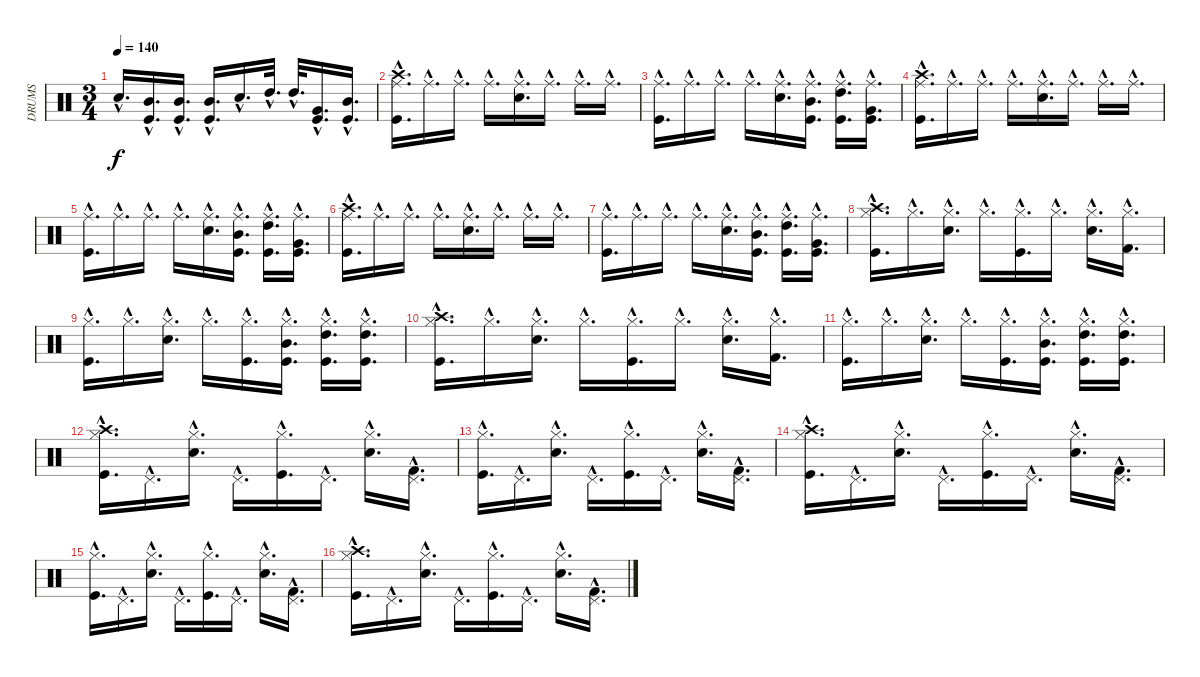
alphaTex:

\track ("DRUMS" "DRUMS") {instrument percussion}
\staff {score}
\articulation defaults
\ts (3 4)
\tempo 140
\clef neutral
\ks c "Snare (hit) 2"{hac}.16{d dy f}
("Mid Tom (hit)"{hac} "Kick (hit)"{hac}).16{d} ("Mid Tom (hit)"{hac} "Kick (hit)"{hac}).16{d} ("Mid Tom (hit)"{hac} "Kick (hit)"{hac}).16{d} "Snare (hit) 2"{hac}.16{d} "High Tom (hit)"{hac}.32{d} "High Tom (hit)"{hac}.32{d} ("Very Low Tom (hit)"{hac} "Kick (hit)"{hac}).16{d} ("Mid Tom (hit)"{hac} "Kick (hit)"{hac}).16{d} |
("Ride (middle)"{hac} "Crash high (hit)"{hac} "Kick (hit)"{hac}).16{d} "Ride (middle)"{hac}.16{d} "Ride (middle)"{hac}.16{d} "Ride (middle)"{hac}.16{d} ("Ride (middle)"{hac} "Snare (hit) 2"{hac}).16{d} "Ride (middle)"{hac}.16{d} "Ride (middle)"{hac}.16{d} "Ride (middle)"{hac}.16{d} |
("Ride (middle)"{hac} "Kick (hit)"{hac}).16{d} "Ride (middle)"{hac}.16{d} "Ride (middle)"{hac}.16{d} "Ride (middle)"{hac}.16{d} ("Ride (middle)"{hac} "Snare (hit) 2"{hac}).16{d} ("Ride (middle)"{hac} "Mid Tom (hit)"{hac} "Kick (hit)"{hac}).16{d} ("Ride (middle)"{hac} "High Tom (hit)"{hac} "Kick (hit)"{hac}).16{d} ("Ride (middle)"{hac} "Very Low Tom (hit)"{hac} "Kick (hit)"{hac}).16{d} |
("Ride (middle)"{hac} "Crash high (hit)"{hac} "Kick (hit)"{hac}).16{d} "Ride (middle)"{hac}.16{d} "Ride (middle)"{hac}.16{d} "Ride (middle)"{hac}.16{d} ("Ride (middle)"{hac} "Snare (hit) 2"{hac}).16{d} "Ride (middle)"{hac}.16{d} "Ride (middle)"{hac}.16{d} "Ride (middle)"{hac}.16{d} |
("Ride (middle)"{hac} "Kick (hit)"{hac}).16{d} "Ride (middle)"{hac}.16{d} "Ride (middle)"{hac}.16{d} "Ride (middle)"{hac}.16{d} ("Ride (middle)"{hac} "Snare (hit) 2"{hac}).16{d} ("Ride (middle)"{hac} "Mid Tom (hit)"{hac} "Kick (hit)"{hac}).16{d} ("Ride (middle)"{hac} "High Tom (hit)"{hac} "Kick (hit)"{hac}).16{d} ("Ride (middle)"{hac} "Very Low Tom (hit)"{hac} "Kick (hit)"{hac}).16{d} |
("Ride (middle)"{hac} "Crash high (hit)"{hac} "Kick (hit)"{hac}).16{d} "Ride (middle)"{hac}.16{d} "Ride (middle)"{hac}.16{d} "Ride (middle)"{hac}.16{d} ("Ride (middle)"{hac} "Snare (hit) 2"{hac}).16{d} "Ride (middle)"{hac}.16{d} "Ride (middle)"{hac}.16{d} "Ride (middle)"{hac}.16{d} |
("Ride (middle)"{hac} "Kick (hit)"{hac}).16{d} "Ride (middle)"{hac}.16{d} "Ride (middle)"{hac}.16{d} "Ride (middle)"{hac}.16{d} ("Ride (middle)"{hac} "Snare (hit) 2"{hac}).16{d} ("Ride (middle)"{hac} "Mid Tom (hit)"{hac} "Kick (hit)"{hac}).16{d} ("Ride (middle)"{hac} "High Tom (hit)"{hac} "Kick (hit)"{hac}).16{d} ("Ride (middle)"{hac} "Very Low Tom (hit)"{hac} "Kick (hit)"{hac}).16{d} |
("Hi-Hat (closed)"{hac} "Crash high (hit)"{hac} "Kick (hit)"{hac}).16{d} "Hi-Hat (closed)"{hac}.16{d} ("Hi-Hat (closed)"{hac} "Electric Snare (hit)"{hac}).16{d} "Hi-Hat (closed)"{hac}.16{d} ("Hi-Hat (closed)"{hac} "Kick (hit)"{hac}).16{d} "Hi-Hat (closed)"{hac}.16{d} ("Hi-Hat (closed)"{hac} "Electric Snare (hit)"{hac}).16{d} ("Hi-Hat (closed)"{hac} "Kick (hit) 2"{hac}).16{d} |
("Hi-Hat (closed)"{hac} "Kick (hit)"{hac}).16{d} "Hi-Hat (closed)"{hac}.16{d} ("Hi-Hat (closed)"{hac} "Electric Snare (hit)"{hac}).16{d} "Hi-Hat (closed)"{hac}.16{d} ("Hi-Hat (closed)"{hac} "Kick (hit)"{hac}).16{d} ("Hi-Hat (closed)"{hac} "Mid Tom (hit)"{hac} "Kick (hit)"{hac}).16{d} ("Hi-Hat (closed)"{hac} "High Tom (hit)"{hac} "Kick (hit)"{hac}).16{d} ("Hi-Hat (closed)"{hac} "High Tom (hit)"{hac} "Kick (hit)"{hac}).16{d} |
("Hi-Hat (closed)"{hac} "Crash high (hit)"{hac} "Kick (hit)"{hac}).16{d} "Hi-Hat (closed)"{hac}.16{d} ("Hi-Hat (closed)"{hac} "Electric Snare (hit)"{hac}).16{d} "Hi-Hat (closed)"{hac}.16{d} ("Hi-Hat (closed)"{hac} "Kick (hit)"{hac}).16{d} "Hi-Hat (closed)"{hac}.16{d} ("Hi-Hat (closed)"{hac} "Electric Snare (hit)"{hac}).16{d} ("Hi-Hat (closed)"{hac} "Kick (hit) 2"{hac}).16{d} |
("Hi-Hat (closed)"{hac} "Kick (hit)"{hac}).16{d} "Hi-Hat (closed)"{hac}.16{d} ("Hi-Hat (closed)"{hac} "Electric Snare (hit)"{hac}).16{d} "Hi-Hat (closed)"{hac}.16{d} ("Hi-Hat (closed)"{hac} "Kick (hit)"{hac}).16{d} ("Hi-Hat (closed)"{hac} "Mid Tom (hit)"{hac} "Kick (hit)"{hac}).16{d} ("Hi-Hat (closed)"{hac} "High Tom (hit)"{hac} "Kick (hit)"{hac}).16{d} ("Hi-Hat (closed)"{hac} "High Tom (hit)"{hac} "Kick (hit)"{hac}).16{d} |
("Hi-Hat (closed)"{hac} "Crash high (hit)"{hac} "Kick (hit)"{hac}).16{d} "Pedal Hi-Hat (hit)"{hac}.16{d} ("Hi-Hat (closed)"{hac} "Electric Snare (hit)"{hac}).16{d} "Pedal Hi-Hat (hit)"{hac}.16{d} ("Hi-Hat (closed)"{hac} "Kick (hit)"{hac}).16{d} "Pedal Hi-Hat (hit)"{hac}.16{d} ("Hi-Hat (closed)"{hac} "Electric Snare (hit)"{hac}).16{d} ("Pedal Hi-Hat (hit)"{hac} "Kick (hit) 2"{hac}).16{d} |
("Hi-Hat (closed)"{hac} "Kick (hit)"{hac}).16{d} "Pedal Hi-Hat (hit)"{hac}.16{d} ("Hi-Hat (closed)"{hac} "Electric Snare (hit)"{hac}).16{d} "Pedal Hi-Hat (hit)"{hac}.16{d} ("Hi-Hat (closed)"{hac} "Kick (hit)"{hac}).16{d} "Pedal Hi-Hat (hit)"{hac}.16{d} ("Hi-Hat (closed)"{hac} "Electric Snare (hit)"{hac}).16{d} ("Pedal Hi-Hat (hit)"{hac} "Kick (hit) 2"{hac}).16{d} |
("Hi-Hat (closed)"{hac} "Crash high (hit)"{hac} "Kick (hit)"{hac}).16{d} "Pedal Hi-Hat (hit)"{hac}.16{d} ("Hi-Hat (closed)"{hac} "Electric Snare (hit)"{hac}).16{d} "Pedal Hi-Hat (hit)"{hac}.16{d} ("Hi-Hat (closed)"{hac} "Kick (hit)"{hac}).16{d} "Pedal Hi-Hat (hit)"{hac}.16{d} ("Hi-Hat (closed)"{hac} "Electric Snare (hit)"{hac}).16{d} ("Pedal Hi-Hat (hit)"{hac} "Kick (hit) 2"{hac}).16{d} |
("Hi-Hat (closed)"{hac} "Kick (hit)"{hac}).16{d} "Pedal Hi-Hat (hit)"{hac}.16{d} ("Hi-Hat (closed)"{hac} "Electric Snare (hit)"{hac}).16{d} "Pedal Hi-Hat (hit)"{hac}.16{d} ("Hi-Hat (closed)"{hac} "Kick (hit)"{hac}).16{d} "Pedal Hi-Hat (hit)"{hac}.16{d} ("Hi-Hat (closed)"{hac} "Electric Snare (hit)"{hac}).16{d} ("Pedal Hi-Hat (hit)"{hac} "Kick (hit) 2"{hac}).16{d} |
("Hi-Hat (closed)"{hac} "Crash high (hit)"{hac} "Kick (hit)"{hac}).16{d} "Pedal Hi-Hat (hit)"{hac}.16{d} ("Hi-Hat (closed)"{hac} "Electric Snare (hit)"{hac}).16{d} "Pedal Hi-Hat (hit)"{hac}.16{d} ("Hi-Hat (closed)"{hac} "Kick (hit)"{hac}).16{d} "Pedal Hi-Hat (hit)"{hac}.16{d} ("Hi-Hat (closed)"{hac} "Electric Snare (hit)"{hac}).16{d} ("Pedal Hi-Hat (hit)"{hac} "Kick (hit) 2"{hac}).16{d}
